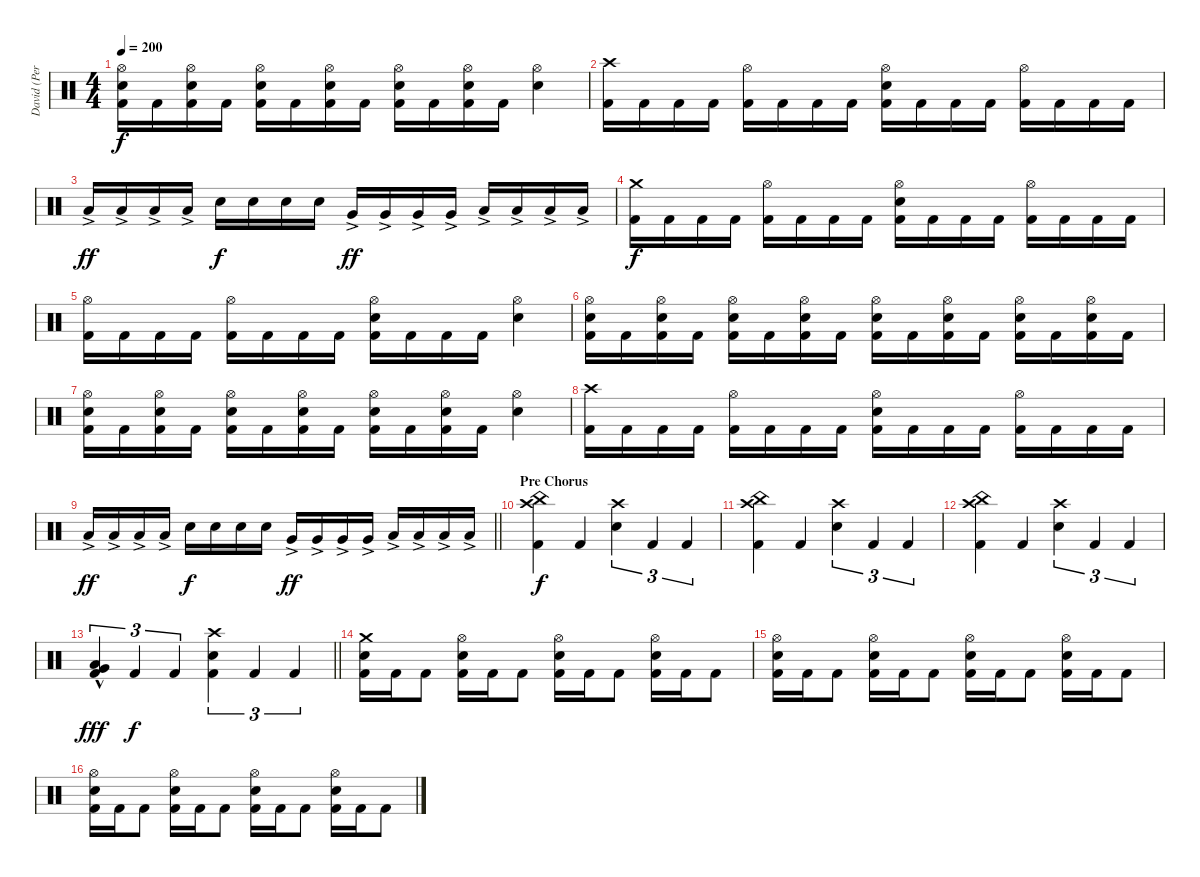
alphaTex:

\track ("David (Percussion)" "David (Per") {instrument percussion}
\staff {score}
\articulation defaults
\ts (4 4)
\tempo 200
\clef neutral
\ks c
("Hi-Hat (open)" "Electric Snare (hit)" "Kick (hit) 2").16{dy f} "Kick (hit) 2".16 ("Hi-Hat (open)" "Electric Snare (hit)" "Kick (hit) 2").16 "Kick (hit) 2".16 ("Hi-Hat (open)" "Electric Snare (hit)" "Kick (hit) 2").16 "Kick (hit) 2".16 ("Hi-Hat (open)" "Electric Snare (hit)" "Kick (hit) 2").16 "Kick (hit) 2".16 ("Hi-Hat (open)" "Electric Snare (hit)" "Kick (hit) 2").16 "Kick (hit) 2".16 ("Hi-Hat (open)" "Electric Snare (hit)" "Kick (hit) 2").16 "Kick (hit) 2".16 ("Hi-Hat (open)" "Electric Snare (hit)").4 |
("Crash high (hit)" "Kick (hit) 2").16 "Kick (hit) 2".16 "Kick (hit) 2".16 "Kick (hit) 2".16 ("Hi-Hat (open)" "Kick (hit) 2").16 "Kick (hit) 2".16 "Kick (hit) 2".16 "Kick (hit) 2".16 ("Hi-Hat (open)" "Electric Snare (hit)" "Kick (hit) 2").16 "Kick (hit) 2".16 "Kick (hit) 2".16 "Kick (hit) 2".16 ("Hi-Hat (open)" "Kick (hit) 2").16 "Kick (hit) 2".16 "Kick (hit) 2".16 "Kick (hit) 2".16 |
"Low Tom (hit)"{ac}.16{dy ff} "Low Tom (hit)"{ac}.16 "Low Tom (hit)"{ac}.16 "Low Tom (hit)"{ac}.16 "Electric Snare (hit)".16{dy f} "Electric Snare (hit)".16 "Electric Snare (hit)".16 "Electric Snare (hit)".16 "Very Low Tom (hit)"{ac}.16{dy ff} "Very Low Tom (hit)"{ac}.16 "Very Low Tom (hit)"{ac}.16 "Very Low Tom (hit)"{ac}.16 "Low Floor Tom (hit)"{ac}.16 "Low Floor Tom (hit)"{ac}.16 "Low Floor Tom (hit)"{ac}.16 "Low Floor Tom (hit)"{ac}.16 |
("Crash medium (hit)" "Kick (hit) 2").16{dy f} "Kick (hit) 2".16 "Kick (hit) 2".16 "Kick (hit) 2".16 ("Hi-Hat (open)" "Kick (hit) 2").16 "Kick (hit) 2".16 "Kick (hit) 2".16 "Kick (hit) 2".16 ("Hi-Hat (open)" "Electric Snare (hit)" "Kick (hit) 2").16 "Kick (hit) 2".16 "Kick (hit) 2".16 "Kick (hit) 2".16 ("Hi-Hat (open)" "Kick (hit) 2").16 "Kick (hit) 2".16 "Kick (hit) 2".16 "Kick (hit) 2".16 |
("Hi-Hat (open)" "Kick (hit) 2").16 "Kick (hit) 2".16 "Kick (hit) 2".16 "Kick (hit) 2".16 ("Hi-Hat (open)" "Kick (hit) 2").16 "Kick (hit) 2".16 "Kick (hit) 2".16 "Kick (hit) 2".16 ("Hi-Hat (open)" "Electric Snare (hit)" "Kick (hit) 2").16 "Kick (hit) 2".16 "Kick (hit) 2".16 "Kick (hit) 2".16 ("Hi-Hat (open)" "Electric Snare (hit)").4 |
("Hi-Hat (open)" "Electric Snare (hit)" "Kick (hit) 2").16 "Kick (hit) 2".16 ("Hi-Hat (open)" "Electric Snare (hit)" "Kick (hit) 2").16 "Kick (hit) 2".16 ("Hi-Hat (open)" "Electric Snare (hit)" "Kick (hit) 2").16 "Kick (hit) 2".16 ("Hi-Hat (open)" "Electric Snare (hit)" "Kick (hit) 2").16 "Kick (hit) 2".16 ("Hi-Hat (open)" "Electric Snare (hit)" "Kick (hit) 2").16 "Kick (hit) 2".16 ("Hi-Hat (open)" "Electric Snare (hit)" "Kick (hit) 2").16 "Kick (hit) 2".16 ("Hi-Hat (open)" "Electric Snare (hit)" "Kick (hit) 2").16 "Kick (hit) 2".16 ("Hi-Hat (open)" "Electric Snare (hit)" "Kick (hit) 2").16 "Kick (hit) 2".16 |
("Hi-Hat (open)" "Electric Snare (hit)" "Kick (hit) 2").16 "Kick (hit) 2".16 ("Hi-Hat (open)" "Electric Snare (hit)" "Kick (hit) 2").16 "Kick (hit) 2".16 ("Hi-Hat (open)" "Electric Snare (hit)" "Kick (hit) 2").16 "Kick (hit) 2".16 ("Hi-Hat (open)" "Electric Snare (hit)" "Kick (hit) 2").16 "Kick (hit) 2".16 ("Hi-Hat (open)" "Electric Snare (hit)" "Kick (hit) 2").16 "Kick (hit) 2".16 ("Hi-Hat (open)" "Electric Snare (hit)" "Kick (hit) 2").16 "Kick (hit) 2".16 ("Hi-Hat (open)" "Electric Snare (hit)").4 |
("Crash high (hit)" "Kick (hit) 2").16 "Kick (hit) 2".16 "Kick (hit) 2".16 "Kick (hit) 2".16 ("Hi-Hat (open)" "Kick (hit) 2").16 "Kick (hit) 2".16 "Kick (hit) 2".16 "Kick (hit) 2".16 ("Hi-Hat (open)" "Electric Snare (hit)" "Kick (hit) 2").16 "Kick (hit) 2".16 "Kick (hit) 2".16 "Kick (hit) 2".16 ("Hi-Hat (open)" "Kick (hit) 2").16 "Kick (hit) 2".16 "Kick (hit) 2".16 "Kick (hit) 2".16 |
\barLineRight lightlight "Low Tom (hit)"{ac}.16{dy ff} "Low Tom (hit)"{ac}.16 "Low Tom (hit)"{ac}.16 "Low Tom (hit)"{ac}.16 "Electric Snare (hit)".16{dy f} "Electric Snare (hit)".16 "Electric Snare (hit)".16 "Electric Snare (hit)".16 "Very Low Tom (hit)"{ac}.16{dy ff} "Very Low Tom (hit)"{ac}.16 "Very Low Tom (hit)"{ac}.16 "Very Low Tom (hit)"{ac}.16 "Low Floor Tom (hit)"{ac}.16 "Low Floor Tom (hit)"{ac}.16 "Low Floor Tom (hit)"{ac}.16 "Low Floor Tom (hit)"{ac}.16
|
\section ("" "Pre Chorus")
("China (hit)" "Crash high (hit)" "Kick (hit) 2").4{dy f} "Kick (hit) 2".4 ("Crash high (hit)" "Electric Snare (hit)").4{tu (3 2)} "Kick (hit) 2".4{tu (3 2)} "Kick (hit) 2".4{tu (3 2)} |
("China (hit)" "Crash high (hit)" "Kick (hit) 2").4 "Kick (hit) 2".4 ("Crash high (hit)" "Electric Snare (hit)").4{tu (3 2)} "Kick (hit) 2".4{tu (3 2)} "Kick (hit) 2".4{tu (3 2)} |
("China (hit)" "Crash high (hit)" "Kick (hit) 2").4 "Kick (hit) 2".4 ("Crash high (hit)" "Electric Snare (hit)").4{tu (3 2)} "Kick (hit) 2".4{tu (3 2)} "Kick (hit) 2".4{tu (3 2)} |
\barLineRight lightlight
("Low Tom (hit)"{hac} "Very Low Tom (hit)"{hac} "Kick (hit) 2").4{tu (3 2) dy fff} "Kick (hit) 2".4{tu (3 2) dy f} "Kick (hit) 2".4{tu (3 2)} ("Crash high (hit)" "Electric Snare (hit)" "Kick (hit) 2").4{tu (3 2)} "Kick (hit) 2".4{tu (3 2)} "Kick (hit) 2".4{tu (3 2)} |
("Crash medium (hit)" "Electric Snare (hit)" "Kick (hit) 2").16 "Kick (hit) 2".16 "Kick (hit) 2".8 ("Hi-Hat (open)" "Electric Snare (hit)" "Kick (hit) 2").16 "Kick (hit) 2".16 "Kick (hit) 2".8 ("Hi-Hat (open)" "Electric Snare (hit)" "Kick (hit) 2").16 "Kick (hit) 2".16 "Kick (hit) 2".8 ("Hi-Hat (open)" "Electric Snare (hit)" "Kick (hit) 2").16 "Kick (hit) 2".16 "Kick (hit) 2".8 |
("Hi-Hat (open)" "Electric Snare (hit)" "Kick (hit) 2").16 "Kick (hit) 2".16 "Kick (hit) 2".8 ("Hi-Hat (open)" "Electric Snare (hit)" "Kick (hit) 2").16 "Kick (hit) 2".16 "Kick (hit) 2".8 ("Hi-Hat (open)" "Electric Snare (hit)" "Kick (hit) 2").16 "Kick (hit) 2".16 "Kick (hit) 2".8 ("Hi-Hat (open)" "Electric Snare (hit)" "Kick (hit) 2").16 "Kick (hit) 2".16 "Kick (hit) 2".8 |
("Hi-Hat (open)" "Electric Snare (hit)" "Kick (hit) 2").16 "Kick (hit) 2".16 "Kick (hit) 2".8 ("Hi-Hat (open)" "Electric Snare (hit)" "Kick (hit) 2").16 "Kick (hit) 2".16 "Kick (hit) 2".8 ("Hi-Hat (open)" "Electric Snare (hit)" "Kick (hit) 2").16 "Kick (hit) 2".16 "Kick (hit) 2".8 ("Hi-Hat (open)" "Electric Snare (hit)" "Kick (hit) 2").16 "Kick (hit) 2".16 "Kick (hit) 2".8
